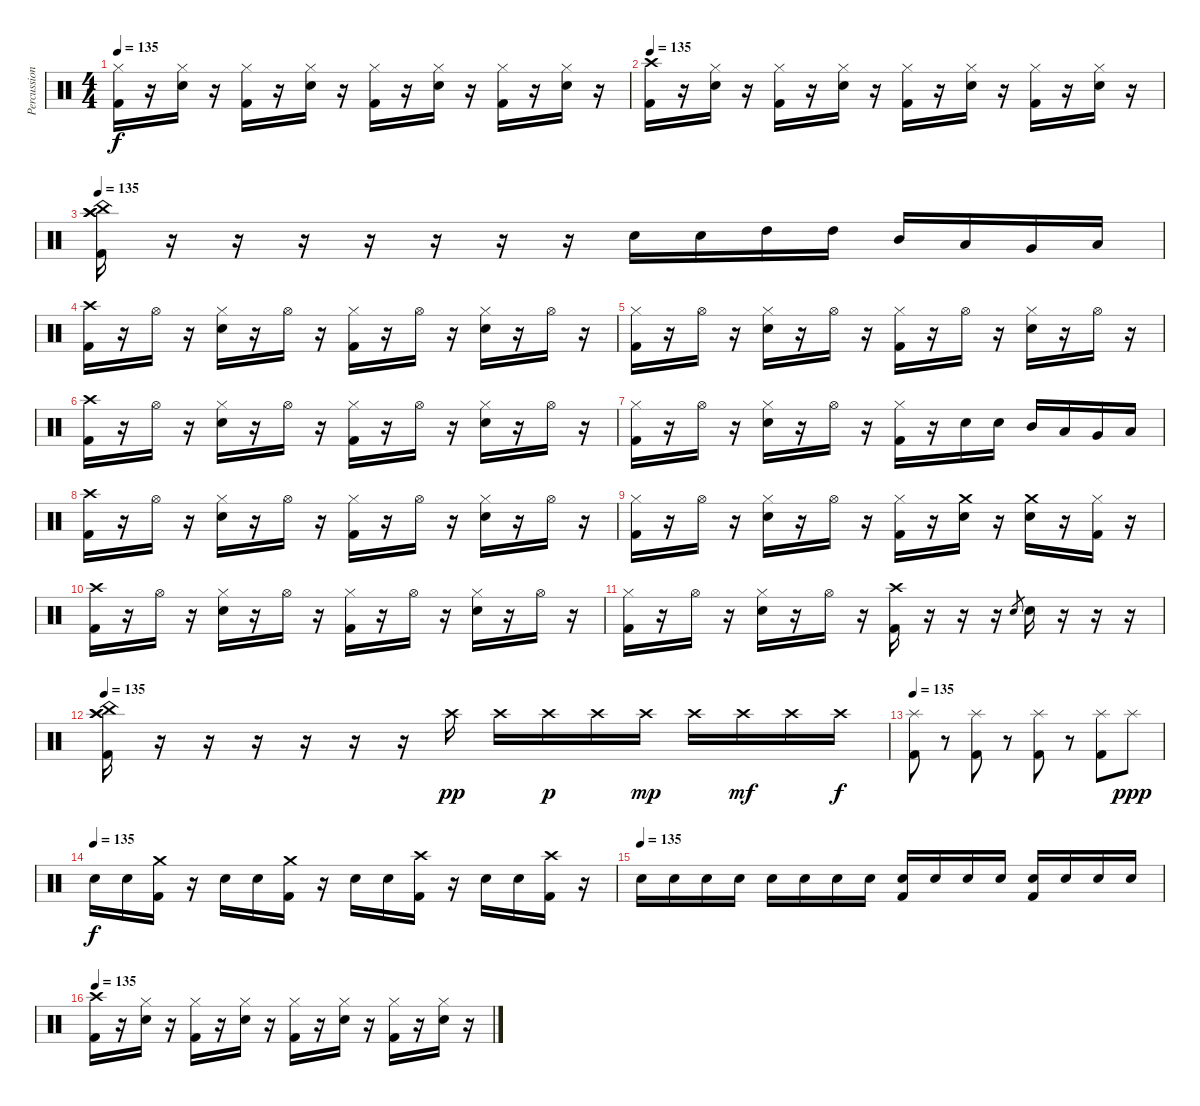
\track ("Percussion" "Percussion") {instrument percussion}
\staff {score}
\articulation defaults
\ts (4 4)
\tempo 135
\clef neutral
\ks c
("Hi-Hat (closed)" "Kick (hit) 2").16{dy f} r.16 ("Hi-Hat (closed)" "Snare (hit) 2").16 r.16 ("Hi-Hat (closed)" "Kick (hit) 2").16 r.16 ("Hi-Hat (closed)" "Snare (hit) 2").16 r.16 ("Hi-Hat (closed)" "Kick (hit) 2").16 r.16 ("Hi-Hat (closed)" "Snare (hit) 2").16 r.16 ("Hi-Hat (closed)" "Kick (hit) 2").16 r.16 ("Hi-Hat (closed)" "Snare (hit) 2").16 r.16 |
\tempo 135
("Crash high (hit)" "Kick (hit) 2").16 r.16 ("Hi-Hat (closed)" "Snare (hit) 2").16 r.16 ("Hi-Hat (closed)" "Kick (hit) 2").16 r.16 ("Hi-Hat (closed)" "Snare (hit) 2").16 r.16 ("Hi-Hat (closed)" "Kick (hit) 2").16 r.16 ("Hi-Hat (closed)" "Snare (hit) 2").16 r.16 ("Hi-Hat (closed)" "Kick (hit) 2").16 r.16 ("Hi-Hat (closed)" "Snare (hit) 2").16 r.16 |
\tempo 135
("Crash high (hit)" "Crash high (hit)" "China (hit)" "Kick (hit) 2").16 r.16 r.16 r.16 r.16 r.16 r.16 r.16 "Snare (hit) 2".16 "Snare (hit) 2".16 "High Tom (hit)".16 "High Tom (hit)".16 "Mid Tom (hit)".16 "Low Tom (hit)".16 "Very Low Tom (hit)".16 "Low Floor Tom (hit)".16 |
("Crash high (hit)" "Kick (hit) 2").16 r.16 "Hi-Hat (open)".16 r.16 ("Hi-Hat (closed)" "Snare (hit) 2").16 r.16 "Hi-Hat (open)".16 r.16 ("Hi-Hat (closed)" "Kick (hit) 2").16 r.16 "Hi-Hat (open)".16 r.16 ("Hi-Hat (closed)" "Snare (hit) 2").16 r.16 "Hi-Hat (open)".16 r.16 |
("Hi-Hat (closed)" "Kick (hit) 2").16 r.16 "Hi-Hat (open)".16 r.16 ("Hi-Hat (closed)" "Snare (hit) 2").16 r.16 "Hi-Hat (open)".16 r.16 ("Hi-Hat (closed)" "Kick (hit) 2").16 r.16 "Hi-Hat (open)".16 r.16 ("Hi-Hat (closed)" "Snare (hit) 2").16 r.16 "Hi-Hat (open)".16 r.16 |
("Crash high (hit)" "Kick (hit) 2").16 r.16 "Hi-Hat (open)".16 r.16 ("Hi-Hat (closed)" "Snare (hit) 2").16 r.16 "Hi-Hat (open)".16 r.16 ("Hi-Hat (closed)" "Kick (hit) 2").16 r.16 "Hi-Hat (open)".16 r.16 ("Hi-Hat (closed)" "Snare (hit) 2").16 r.16 "Hi-Hat (open)".16 r.16 |
("Hi-Hat (closed)" "Kick (hit) 2").16 r.16 "Hi-Hat (open)".16 r.16 ("Hi-Hat (closed)" "Snare (hit) 2").16 r.16 "Hi-Hat (open)".16 r.16 ("Hi-Hat (closed)" "Kick (hit) 2").16 r.16 "Snare (hit) 2".16 "Snare (hit) 2".16 "Mid Tom (hit)".16 "Low Tom (hit)".16 "Very Low Tom (hit)".16 "Low Floor Tom (hit)".16 |
("Crash high (hit)" "Kick (hit) 2").16 r.16 "Hi-Hat (open)".16 r.16 ("Hi-Hat (closed)" "Snare (hit) 2").16 r.16 "Hi-Hat (open)".16 r.16 ("Hi-Hat (closed)" "Kick (hit) 2").16 r.16 "Hi-Hat (open)".16 r.16 ("Hi-Hat (closed)" "Snare (hit) 2").16 r.16 "Hi-Hat (open)".16 r.16 |
("Hi-Hat (closed)" "Kick (hit) 2").16 r.16 "Hi-Hat (open)".16 r.16 ("Hi-Hat (closed)" "Snare (hit) 2").16 r.16 "Hi-Hat (open)".16 r.16 ("Hi-Hat (closed)" "Kick (hit) 2").16 r.16 ("Crash medium (hit)" "Snare (hit) 2").16 r.16 ("Crash medium (hit)" "Snare (hit) 2").16 r.16 ("Hi-Hat (closed)" "Kick (hit) 2").16 r.16 |
("Crash high (hit)" "Kick (hit) 2").16 r.16 "Hi-Hat (open)".16 r.16 ("Hi-Hat (closed)" "Snare (hit) 2").16 r.16 "Hi-Hat (open)".16 r.16 ("Hi-Hat (closed)" "Kick (hit) 2").16 r.16 "Hi-Hat (open)".16 r.16 ("Hi-Hat (closed)" "Snare (hit) 2").16 r.16 "Hi-Hat (open)".16 r.16 |
("Hi-Hat (closed)" "Kick (hit) 2").16 r.16 "Hi-Hat (open)".16 r.16 ("Hi-Hat (closed)" "Snare (hit) 2").16 r.16 "Hi-Hat (open)".16 r.16 ("Crash high (hit)" "Kick (hit) 2").16 r.16 r.16 r.16 "Snare (hit) 2".8{gr} "Snare (hit) 2".16 r.16 r.16 r.16 |
\tempo 135
("Crash high (hit)" "Crash high (hit)" "China (hit)" "Kick (hit) 2").16 r.16 r.16 r.16 r.16 r.16 r.16 "Crash high (hit)".16{dy pp} "Crash high (hit)".16 "Crash high (hit)".16{dy p} "Crash high (hit)".16 "Crash high (hit)".16{dy mp} "Crash high (hit)".16 "Crash high (hit)".16{dy mf} "Crash high (hit)".16 "Crash high (hit)".16{dy f} |
\tempo 135
("Splash (hit)" "Kick (hit) 2").8 r.8 ("Splash (hit)" "Kick (hit) 2").8 r.8 ("Splash (hit)" "Kick (hit) 2").8 r.8 ("Splash (hit)" "Kick (hit) 2").8 "Splash (hit)".8{dy ppp} |
\tempo (135)
"Snare (hit) 2".16{dy f} "Snare (hit) 2".16 ("Crash medium (hit)" "Kick (hit) 2").16 r.16 "Snare (hit) 2".16 "Snare (hit) 2".16 ("Crash medium (hit)" "Kick (hit) 2").16 r.16 "Snare (hit) 2".16 "Snare (hit) 2".16 ("Crash high (hit)" "Kick (hit) 2").16 r.16 "Snare (hit) 2".16 "Snare (hit) 2".16 ("Crash high (hit)" "Kick (hit) 2").16 r.16 |
\tempo (135)
"Snare (hit) 2".16 "Snare (hit) 2".16 "Snare (hit) 2".16 "Snare (hit) 2".16 "Snare (hit) 2".16 "Snare (hit) 2".16 "Snare (hit) 2".16 "Snare (hit) 2".16 ("Snare (hit) 2" "Kick (hit) 2").16 "Snare (hit) 2".16 "Snare (hit) 2".16 "Snare (hit) 2".16 ("Snare (hit) 2" "Kick (hit) 2").16 "Snare (hit) 2".16 "Snare (hit) 2".16 "Snare (hit) 2".16 |
\tempo 135
("Crash high (hit)" "Kick (hit) 2").16 r.16 ("Hi-Hat (closed)" "Snare (hit) 2").16 r.16 ("Hi-Hat (closed)" "Kick (hit) 2").16 r.16 ("Hi-Hat (closed)" "Snare (hit) 2").16 r.16 ("Hi-Hat (closed)" "Kick (hit) 2").16 r.16 ("Hi-Hat (closed)" "Snare (hit) 2").16 r.16 ("Hi-Hat (closed)" "Kick (hit) 2").16 r.16 ("Hi-Hat (closed)" "Snare (hit) 2").16 r.16
